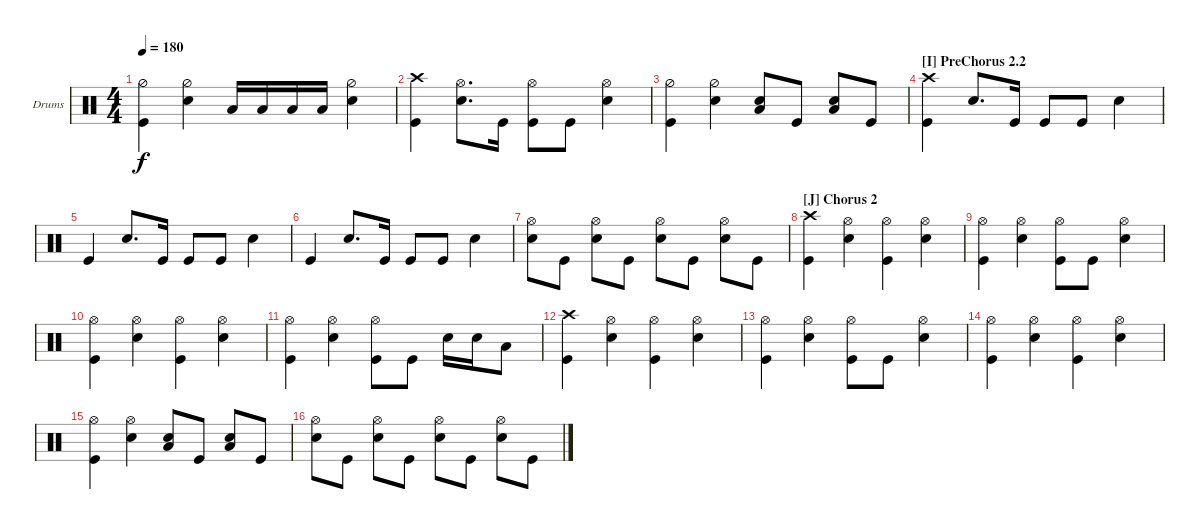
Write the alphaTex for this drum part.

\defaultSystemsLayout 4
\bracketExtendMode groupsimilarinstruments
\firstSystemTrackNameOrientation horizontal
\otherSystemsTrackNameOrientation horizontal
\track ("Drumkit" "Drums") {instrument percussion}
\staff {score}
\articulation defaults
\ts (4 4)
\tempo 180
\clef neutral
\ks c
("Kick (hit)" "Hi-Hat (half)").4{dy f} ("Snare (hit) 2" "Hi-Hat (half)").4 "Low Tom (hit)".16 "Low Tom (hit)".16 "Low Tom (hit)".16 "Low Tom (hit)".16 ("Snare (hit) 2" "Hi-Hat (half)").4 |
("Kick (hit)" "Crash high (hit)").4 ("Snare (hit) 2" "Hi-Hat (open)").8{d} "Kick (hit)".16 ("Kick (hit)" "Hi-Hat (open)").8 "Kick (hit)".8 ("Snare (hit) 2" "Hi-Hat (open)").4 |
("Kick (hit)" "Hi-Hat (half)").4 ("Snare (hit) 2" "Hi-Hat (half)").4 ("Low Tom (hit)" "Snare (hit) 2").8 "Kick (hit)".8 ("Low Tom (hit)" "Snare (hit) 2").8 "Kick (hit)".8 |
\section ("I" "PreChorus 2.2")
("Kick (hit)" "Crash high (hit)").4 "Snare (hit) 2".8{d} "Kick (hit)".16 "Kick (hit)".8 "Kick (hit)".8 "Snare (hit) 2".4 |
"Kick (hit)".4 "Snare (hit) 2".8{d} "Kick (hit)".16 "Kick (hit)".8 "Kick (hit)".8 "Snare (hit) 2".4 |
"Kick (hit)".4 "Snare (hit) 2".8{d} "Kick (hit)".16 "Kick (hit)".8 "Kick (hit)".8 "Snare (hit) 2".4 |
("Hi-Hat (open)" "Snare (hit) 2").8 "Kick (hit)".8 ("Hi-Hat (open)" "Snare (hit) 2").8 "Kick (hit)".8 ("Hi-Hat (open)" "Snare (hit) 2").8 "Kick (hit)".8 ("Hi-Hat (open)" "Snare (hit) 2").8 "Kick (hit)".8 |
\section ("J" "Chorus 2")
("Crash high (hit)" "Kick (hit)").4 ("Snare (hit) 2" "Hi-Hat (open)").4 ("Kick (hit)" "Hi-Hat (open)").4 ("Snare (hit) 2" "Hi-Hat (open)").4 |
("Kick (hit)" "Hi-Hat (open)").4 ("Snare (hit) 2" "Hi-Hat (open)").4 ("Kick (hit)" "Hi-Hat (open)").8 "Kick (hit)".8 ("Snare (hit) 2" "Hi-Hat (open)").4 |
("Kick (hit)" "Hi-Hat (open)").4 ("Snare (hit) 2" "Hi-Hat (open)").4 ("Kick (hit)" "Hi-Hat (open)").4 ("Snare (hit) 2" "Hi-Hat (open)").4 |
("Kick (hit)" "Hi-Hat (open)").4 ("Snare (hit) 2" "Hi-Hat (open)").4 ("Kick (hit)" "Hi-Hat (open)").8 "Kick (hit)".8 "Snare (hit) 2".16 "Snare (hit) 2".16 "Low Tom (hit)".8 |
("Crash high (hit)" "Kick (hit)").4 ("Snare (hit) 2" "Hi-Hat (open)").4 ("Kick (hit)" "Hi-Hat (open)").4 ("Snare (hit) 2" "Hi-Hat (open)").4 |
("Kick (hit)" "Hi-Hat (open)").4 ("Snare (hit) 2" "Hi-Hat (open)").4 ("Kick (hit)" "Hi-Hat (open)").8 "Kick (hit)".8 ("Snare (hit) 2" "Hi-Hat (open)").4 |
("Kick (hit)" "Hi-Hat (open)").4 ("Snare (hit) 2" "Hi-Hat (open)").4 ("Kick (hit)" "Hi-Hat (open)").4 ("Snare (hit) 2" "Hi-Hat (open)").4 |
("Kick (hit)" "Hi-Hat (open)").4 ("Snare (hit) 2" "Hi-Hat (open)").4 ("Low Tom (hit)" "Snare (hit) 2").8 "Kick (hit)".8 ("Low Tom (hit)" "Snare (hit) 2").8 "Kick (hit)".8 |
("Hi-Hat (open)" "Snare (hit) 2").8 "Kick (hit)".8 ("Hi-Hat (open)" "Snare (hit) 2").8 "Kick (hit)".8 ("Hi-Hat (open)" "Snare (hit) 2").8 "Kick (hit)".8 ("Hi-Hat (open)" "Snare (hit) 2").8 "Kick (hit)".8
